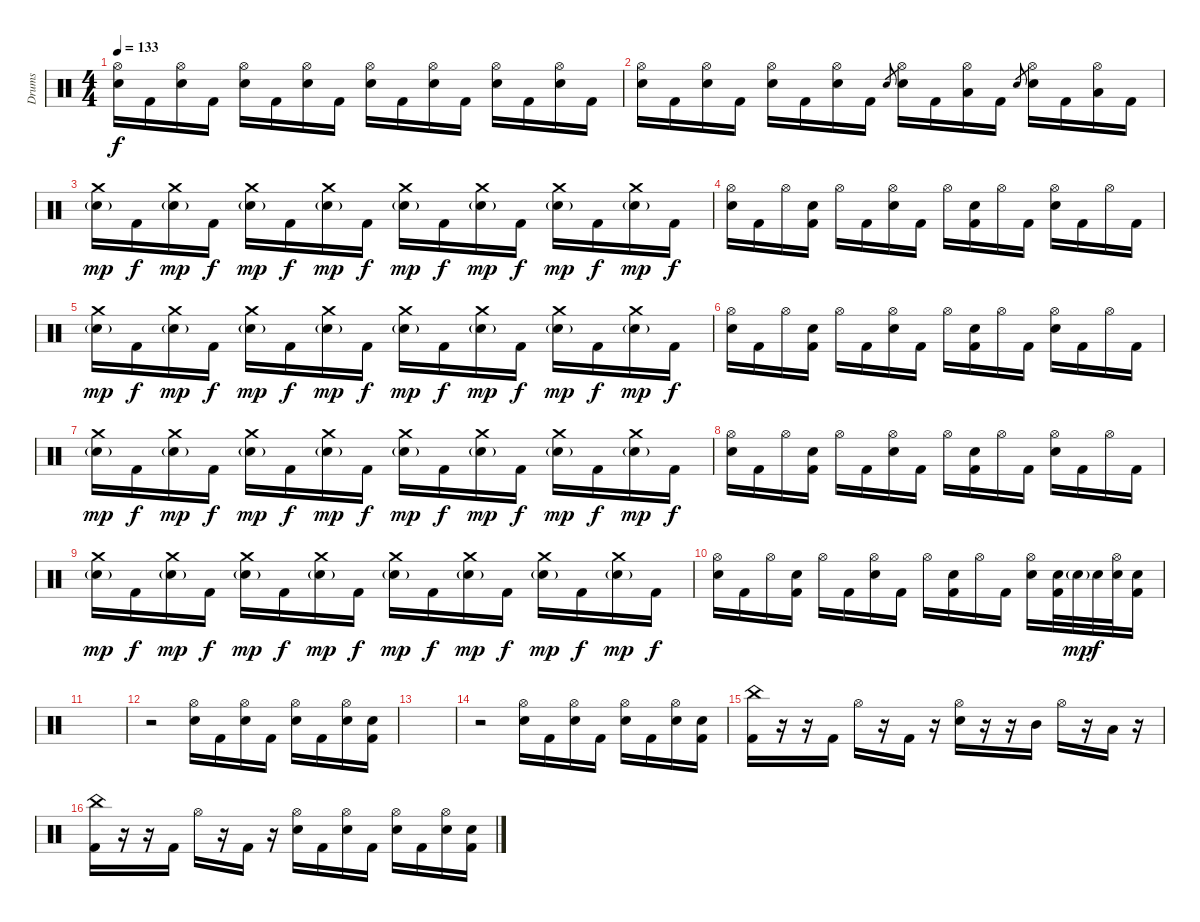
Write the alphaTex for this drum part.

\track ("Drums" "Drums") {instrument percussion}
\staff {score}
\articulation defaults
\ts (4 4)
\tempo 133
\clef neutral
\ks c
("Hi-Hat (open)" "Snare (hit) 2").16{dy f} "Kick (hit) 2".16 ("Hi-Hat (open)" "Snare (hit) 2").16 "Kick (hit) 2".16 ("Hi-Hat (open)" "Snare (hit) 2").16 "Kick (hit) 2".16 ("Hi-Hat (open)" "Snare (hit) 2").16 "Kick (hit) 2".16 ("Hi-Hat (open)" "Snare (hit) 2").16 "Kick (hit) 2".16 ("Hi-Hat (open)" "Snare (hit) 2").16 "Kick (hit) 2".16 ("Hi-Hat (open)" "Snare (hit) 2").16 "Kick (hit) 2".16 ("Hi-Hat (open)" "Snare (hit) 2").16 "Kick (hit) 2".16 |
("Hi-Hat (open)" "Snare (hit) 2").16 "Kick (hit) 2".16 ("Hi-Hat (open)" "Snare (hit) 2").16 "Kick (hit) 2".16 ("Hi-Hat (open)" "Snare (hit) 2").16 "Kick (hit) 2".16 ("Hi-Hat (open)" "Snare (hit) 2").16 "Kick (hit) 2".16 "Snare (hit) 2".8{gr} ("Hi-Hat (open)" "Snare (hit) 2").16 "Kick (hit) 2".16 ("Hi-Hat (open)" "Low Tom (hit)").16 "Kick (hit) 2".16 "Snare (hit) 2".8{gr} ("Hi-Hat (open)" "Snare (hit) 2").16 "Kick (hit) 2".16 ("Hi-Hat (open)" "Low Floor Tom (hit)").16 "Kick (hit) 2".16 |
("Crash medium (hit)" "Snare (hit) 2"{g}).16{dy mp} "Kick (hit) 2".16{dy f} ("Crash medium (hit)" "Snare (hit) 2"{g}).16{dy mp} "Kick (hit) 2".16{dy f} ("Crash medium (hit)" "Snare (hit) 2"{g}).16{dy mp} "Kick (hit) 2".16{dy f} ("Crash medium (hit)" "Snare (hit) 2"{g}).16{dy mp} "Kick (hit) 2".16{dy f} ("Crash medium (hit)" "Snare (hit) 2"{g}).16{dy mp} "Kick (hit) 2".16{dy f} ("Crash medium (hit)" "Snare (hit) 2"{g}).16{dy mp} "Kick (hit) 2".16{dy f} ("Crash medium (hit)" "Snare (hit) 2"{g}).16{dy mp} "Kick (hit) 2".16{dy f} ("Crash medium (hit)" "Snare (hit) 2"{g}).16{dy mp} "Kick (hit) 2".16{dy f} |
("Hi-Hat (open)" "Snare (hit) 2").16 "Kick (hit) 2".16 "Hi-Hat (open)".16 ("Snare (hit) 2" "Kick (hit) 2").16 "Hi-Hat (open)".16 "Kick (hit) 2".16 ("Hi-Hat (open)" "Snare (hit) 2").16 "Kick (hit) 2".16 "Hi-Hat (open)".16 ("Snare (hit) 2" "Kick (hit) 2").16 "Hi-Hat (open)".16 "Kick (hit) 2".16 ("Hi-Hat (open)" "Snare (hit) 2").16 "Kick (hit) 2".16 "Hi-Hat (open)".16 "Kick (hit) 2".16 |
("Crash medium (hit)" "Snare (hit) 2"{g}).16{dy mp} "Kick (hit) 2".16{dy f} ("Crash medium (hit)" "Snare (hit) 2"{g}).16{dy mp} "Kick (hit) 2".16{dy f} ("Crash medium (hit)" "Snare (hit) 2"{g}).16{dy mp} "Kick (hit) 2".16{dy f} ("Crash medium (hit)" "Snare (hit) 2"{g}).16{dy mp} "Kick (hit) 2".16{dy f} ("Crash medium (hit)" "Snare (hit) 2"{g}).16{dy mp} "Kick (hit) 2".16{dy f} ("Crash medium (hit)" "Snare (hit) 2"{g}).16{dy mp} "Kick (hit) 2".16{dy f} ("Crash medium (hit)" "Snare (hit) 2"{g}).16{dy mp} "Kick (hit) 2".16{dy f} ("Crash medium (hit)" "Snare (hit) 2"{g}).16{dy mp} "Kick (hit) 2".16{dy f} |
("Hi-Hat (open)" "Snare (hit) 2").16 "Kick (hit) 2".16 "Hi-Hat (open)".16 ("Snare (hit) 2" "Kick (hit) 2").16 "Hi-Hat (open)".16 "Kick (hit) 2".16 ("Hi-Hat (open)" "Snare (hit) 2").16 "Kick (hit) 2".16 "Hi-Hat (open)".16 ("Snare (hit) 2" "Kick (hit) 2").16 "Hi-Hat (open)".16 "Kick (hit) 2".16 ("Hi-Hat (open)" "Snare (hit) 2").16 "Kick (hit) 2".16 "Hi-Hat (open)".16 "Kick (hit) 2".16 |
("Crash medium (hit)" "Snare (hit) 2"{g}).16{dy mp} "Kick (hit) 2".16{dy f} ("Crash medium (hit)" "Snare (hit) 2"{g}).16{dy mp} "Kick (hit) 2".16{dy f} ("Crash medium (hit)" "Snare (hit) 2"{g}).16{dy mp} "Kick (hit) 2".16{dy f} ("Crash medium (hit)" "Snare (hit) 2"{g}).16{dy mp} "Kick (hit) 2".16{dy f} ("Crash medium (hit)" "Snare (hit) 2"{g}).16{dy mp} "Kick (hit) 2".16{dy f} ("Crash medium (hit)" "Snare (hit) 2"{g}).16{dy mp} "Kick (hit) 2".16{dy f} ("Crash medium (hit)" "Snare (hit) 2"{g}).16{dy mp} "Kick (hit) 2".16{dy f} ("Crash medium (hit)" "Snare (hit) 2"{g}).16{dy mp} "Kick (hit) 2".16{dy f} |
("Hi-Hat (open)" "Snare (hit) 2").16 "Kick (hit) 2".16 "Hi-Hat (open)".16 ("Snare (hit) 2" "Kick (hit) 2").16 "Hi-Hat (open)".16 "Kick (hit) 2".16 ("Hi-Hat (open)" "Snare (hit) 2").16 "Kick (hit) 2".16 "Hi-Hat (open)".16 ("Snare (hit) 2" "Kick (hit) 2").16 "Hi-Hat (open)".16 "Kick (hit) 2".16 ("Hi-Hat (open)" "Snare (hit) 2").16 "Kick (hit) 2".16 "Hi-Hat (open)".16 "Kick (hit) 2".16 |
("Crash medium (hit)" "Snare (hit) 2"{g}).16{dy mp} "Kick (hit) 2".16{dy f} ("Crash medium (hit)" "Snare (hit) 2"{g}).16{dy mp} "Kick (hit) 2".16{dy f} ("Crash medium (hit)" "Snare (hit) 2"{g}).16{dy mp} "Kick (hit) 2".16{dy f} ("Crash medium (hit)" "Snare (hit) 2"{g}).16{dy mp} "Kick (hit) 2".16{dy f} ("Crash medium (hit)" "Snare (hit) 2"{g}).16{dy mp} "Kick (hit) 2".16{dy f} ("Crash medium (hit)" "Snare (hit) 2"{g}).16{dy mp} "Kick (hit) 2".16{dy f} ("Crash medium (hit)" "Snare (hit) 2"{g}).16{dy mp} "Kick (hit) 2".16{dy f} ("Crash medium (hit)" "Snare (hit) 2"{g}).16{dy mp} "Kick (hit) 2".16{dy f} |
("Hi-Hat (open)" "Snare (hit) 2").16 "Kick (hit) 2".16 "Hi-Hat (open)".16 ("Snare (hit) 2" "Kick (hit) 2").16 "Hi-Hat (open)".16 "Kick (hit) 2".16 ("Hi-Hat (open)" "Snare (hit) 2").16 "Kick (hit) 2".16 "Hi-Hat (open)".16 ("Snare (hit) 2" "Kick (hit) 2").16 "Hi-Hat (open)".16 "Kick (hit) 2".16 ("Hi-Hat (open)" "Snare (hit) 2").16 ("Snare (hit) 2" "Kick (hit) 2").32 "Snare (hit) 2"{g}.32{dy mp} "Snare (hit) 2".32{dy f} ("Hi-Hat (open)" "Snare (hit) 2").32 ("Snare (hit) 2" "Kick (hit) 2").16 |
|
r.2 ("Hi-Hat (open)" "Snare (hit) 2").16 "Kick (hit) 2".16 ("Hi-Hat (open)" "Snare (hit) 2").16 "Kick (hit) 2".16 ("Hi-Hat (open)" "Snare (hit) 2").16 "Kick (hit) 2".16 ("Hi-Hat (open)" "Snare (hit) 2").16 ("Snare (hit) 2" "Kick (hit) 2").16 |
|
r.2 ("Hi-Hat (open)" "Snare (hit) 2").16 "Kick (hit) 2".16 ("Hi-Hat (open)" "Snare (hit) 2").16 "Kick (hit) 2".16 ("Hi-Hat (open)" "Snare (hit) 2").16 "Kick (hit) 2".16 ("Hi-Hat (open)" "Snare (hit) 2").16 ("Snare (hit) 2" "Kick (hit) 2").16 |
("China (hit)" "Kick (hit) 2").16 r.16 r.16 "Kick (hit) 2".16 "Hi-Hat (open)".16 r.16 "Kick (hit) 2".16 r.16 ("Hi-Hat (open)" "Snare (hit) 2").16 r.16 r.16 "Mid Tom (hit)".16 "Hi-Hat (open)".16 r.16 "Low Tom (hit)".16 r.16 |
("China (hit)" "Kick (hit) 2").16 r.16 r.16 "Kick (hit) 2".16 "Hi-Hat (open)".16 r.16 "Kick (hit) 2".16 r.16 ("Hi-Hat (open)" "Snare (hit) 2").16 "Kick (hit) 2".16 ("Hi-Hat (open)" "Snare (hit) 2").16 "Kick (hit) 2".16 ("Hi-Hat (open)" "Snare (hit) 2").16 "Kick (hit) 2".16 ("Hi-Hat (open)" "Snare (hit) 2").16 ("Snare (hit) 2" "Kick (hit) 2").16
